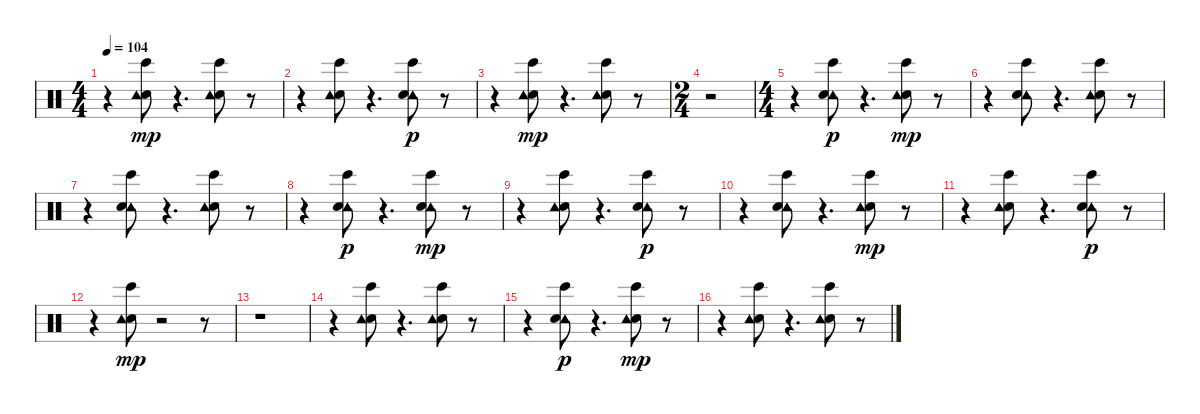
\track "" {instrument percussion}
\staff {score}
\articulation defaults
\ts (4 4)
\tempo 104
\clef neutral
\ks c
r.4{dy mp} ("Electric Snare (hit)" "Tambourine (hit)" "Bongo High (hit)").8 r.4{d} ("Bongo High (hit)" "Electric Snare (hit)" "Tambourine (hit)").8 r.8 |
r.4 ("Electric Snare (hit)" "Bongo High (hit)" "Tambourine (hit)").8 r.4{d} ("Tambourine (hit)" "Bongo High (hit)" "Electric Snare (hit)").8{dy p} r.8 |
r.4 ("Electric Snare (hit)" "Tambourine (hit)" "Bongo High (hit)").8{dy mp} r.4{d} ("Electric Snare (hit)" "Tambourine (hit)" "Bongo High (hit)").8 r.8 |
\ts (2 4)
r.2 |
\ts (4 4)
r.4 ("Bongo High (hit)" "Tambourine (hit)" "Electric Snare (hit)").8{dy p} r.4{d} ("Bongo High (hit)" "Electric Snare (hit)" "Tambourine (hit)").8{dy mp} r.8 |
r.4 ("Tambourine (hit)" "Electric Snare (hit)" "Bongo High (hit)").8 r.4{d} ("Electric Snare (hit)" "Tambourine (hit)" "Bongo High (hit)").8 r.8 |
r.4 ("Tambourine (hit)" "Electric Snare (hit)" "Bongo High (hit)").8 r.4{d} ("Electric Snare (hit)" "Tambourine (hit)" "Bongo High (hit)").8 r.8 |
r.4 ("Bongo High (hit)" "Tambourine (hit)" "Electric Snare (hit)").8{dy p} r.4{d} ("Tambourine (hit)" "Electric Snare (hit)" "Bongo High (hit)").8{dy mp} r.8 |
r.4 ("Electric Snare (hit)" "Bongo High (hit)" "Tambourine (hit)").8 r.4{d} ("Bongo High (hit)" "Tambourine (hit)" "Electric Snare (hit)").8{dy p} r.8 |
r.4 ("Tambourine (hit)" "Bongo High (hit)" "Electric Snare (hit)").8 r.4{d} ("Bongo High (hit)" "Electric Snare (hit)" "Tambourine (hit)").8{dy mp} r.8 |
r.4 ("Electric Snare (hit)" "Tambourine (hit)" "Bongo High (hit)").8 r.4{d} ("Tambourine (hit)" "Bongo High (hit)" "Electric Snare (hit)").8{dy p} r.8 |
r.4 ("Electric Snare (hit)" "Tambourine (hit)" "Bongo High (hit)").8{dy mp} r.2 r.8 |
r.1 |
r.4 ("Electric Snare (hit)" "Bongo High (hit)" "Tambourine (hit)").8 r.4{d} ("Electric Snare (hit)" "Bongo High (hit)" "Tambourine (hit)").8 r.8 |
r.4 ("Bongo High (hit)" "Tambourine (hit)" "Electric Snare (hit)").8{dy p} r.4{d} ("Bongo High (hit)" "Electric Snare (hit)" "Tambourine (hit)").8{dy mp} r.8 |
r.4 ("Electric Snare (hit)" "Bongo High (hit)" "Tambourine (hit)").8 r.4{d} ("Electric Snare (hit)" "Bongo High (hit)" "Tambourine (hit)").8 r.8
